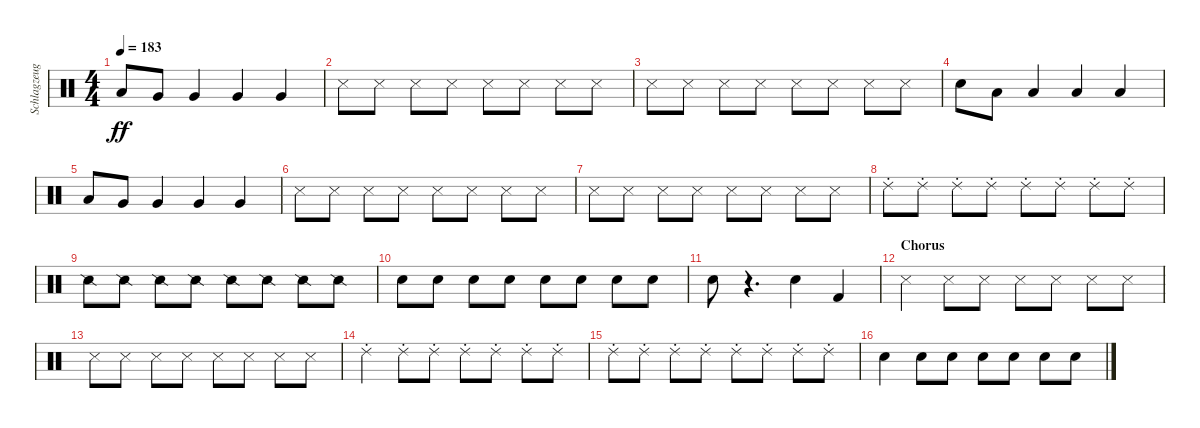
\track ("Schlagzeug - Bela B." "Schlagzeug") {instrument percussion}
\staff {score}
\articulation defaults
\ts (4 4)
\tempo 183
\clef neutral
\ks c "Low Floor Tom (hit)".8{dy ff} "Very Low Tom (hit)".8 "Very Low Tom (hit)".4 "Very Low Tom (hit)".4 "Very Low Tom (hit)".4
|
"Metronome (hit)".8 "Metronome (hit)".8 "Metronome (hit)".8 "Metronome (hit)".8 "Metronome (hit)".8 "Metronome (hit)".8 "Metronome (hit)".8 "Metronome (hit)".8 |
"Metronome (hit)".8 "Metronome (hit)".8 "Metronome (hit)".8 "Metronome (hit)".8 "Metronome (hit)".8 "Metronome (hit)".8 "Metronome (hit)".8 "Metronome (hit)".8 |
"Electric Snare (hit)".8 "Low Floor Tom (hit)".8 "Low Floor Tom (hit)".4 "Low Floor Tom (hit)".4 "Low Floor Tom (hit)".4 |
"Low Floor Tom (hit)".8 "Very Low Tom (hit)".8 "Very Low Tom (hit)".4 "Very Low Tom (hit)".4 "Very Low Tom (hit)".4 |
"Metronome (hit)".8 "Metronome (hit)".8 "Metronome (hit)".8 "Metronome (hit)".8 "Metronome (hit)".8 "Metronome (hit)".8 "Metronome (hit)".8 "Metronome (hit)".8 |
"Metronome (hit)".8 "Metronome (hit)".8 "Metronome (hit)".8 "Metronome (hit)".8 "Metronome (hit)".8 "Metronome (hit)".8 "Metronome (hit)".8 "Metronome (hit)".8 |
"Ride (choke) 2".8 "Ride (choke) 2".8 "Ride (choke) 2".8 "Ride (choke) 2".8 "Ride (choke) 2".8 "Ride (choke) 2".8 "Ride (choke) 2".8 "Ride (choke) 2".8 |
"Snare (side stick) 2".8 "Snare (side stick) 2".8 "Snare (side stick) 2".8 "Snare (side stick) 2".8 "Snare (side stick) 2".8 "Snare (side stick) 2".8 "Snare (side stick) 2".8 "Snare (side stick) 2".8 |
"Electric Snare (hit)".8 "Electric Snare (hit)".8 "Electric Snare (hit)".8 "Electric Snare (hit)".8 "Electric Snare (hit)".8 "Electric Snare (hit)".8 "Electric Snare (hit)".8 "Electric Snare (hit)".8 |
"Electric Snare (hit)".8 r.4{d} "Snare (hit) 2".4 "Kick (hit) 2".4 |
\section ("" "Chorus")
"Metronome (hit)".4 "Metronome (hit)".8 "Metronome (hit)".8 "Metronome (hit)".8 "Metronome (hit)".8 "Metronome (hit)".8 "Metronome (hit)".8 |
"Metronome (hit)".8 "Metronome (hit)".8 "Metronome (hit)".8 "Metronome (hit)".8 "Metronome (hit)".8 "Metronome (hit)".8 "Metronome (hit)".8 "Metronome (hit)".8 |
"Ride (choke) 2".4 "Ride (choke) 2".8 "Ride (choke) 2".8 "Ride (choke) 2".8 "Ride (choke) 2".8 "Ride (choke) 2".8 "Ride (choke) 2".8 |
"Ride (choke) 2".8 "Ride (choke) 2".8 "Ride (choke) 2".8 "Ride (choke) 2".8 "Ride (choke) 2".8 "Ride (choke) 2".8 "Ride (choke) 2".8 "Ride (choke) 2".8 |
"Snare (hit) 2".4 "Snare (hit) 2".8 "Snare (hit) 2".8 "Snare (hit) 2".8 "Snare (hit) 2".8 "Snare (hit) 2".8 "Snare (hit) 2".8
